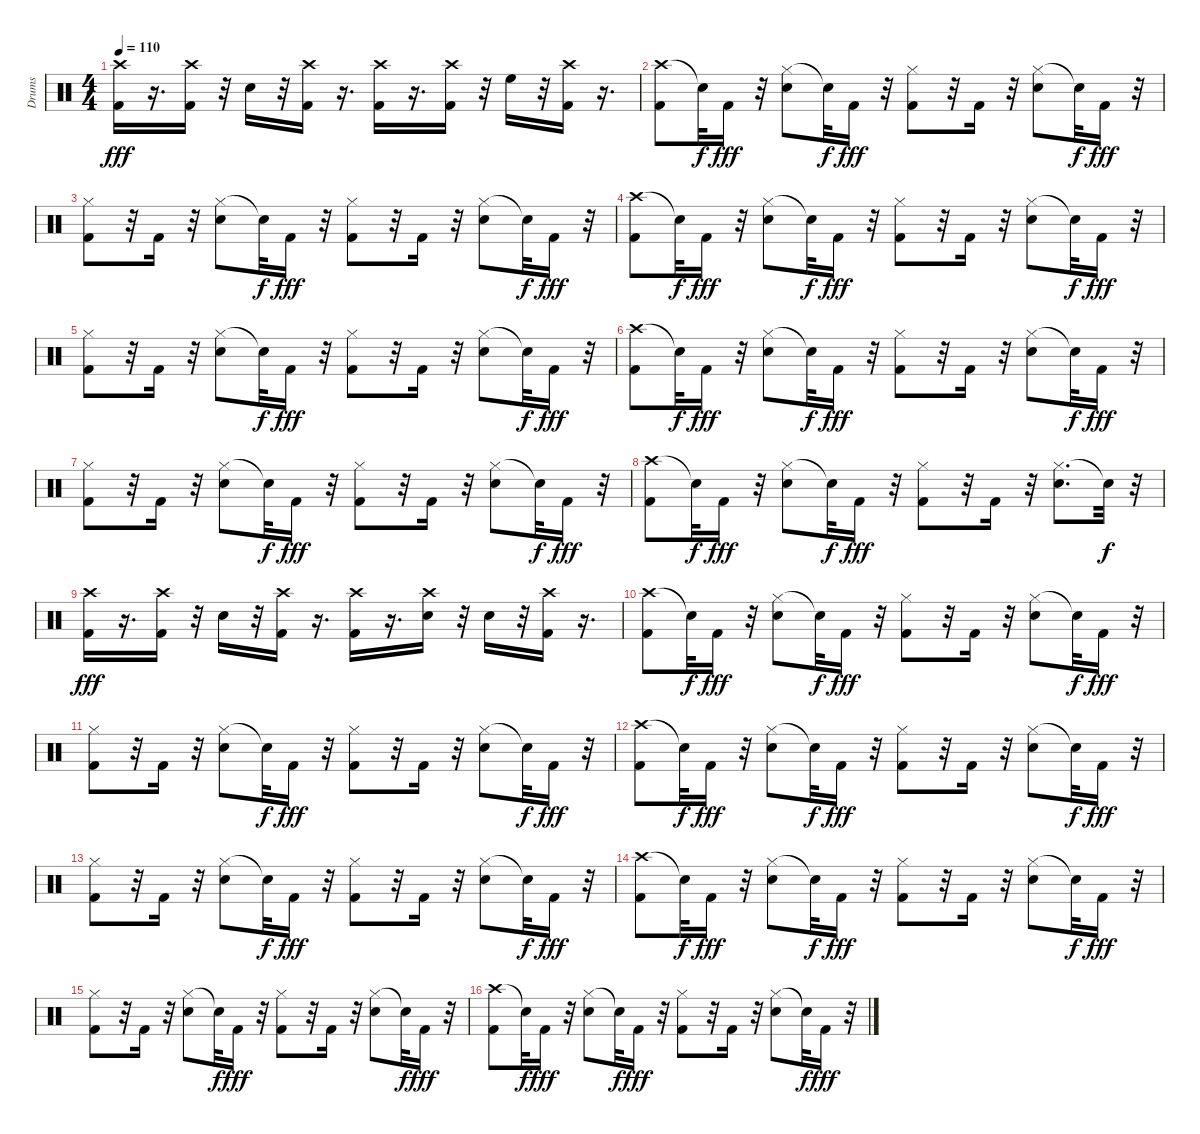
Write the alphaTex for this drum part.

\track ("Drums" "Drums") {instrument percussion}
\staff {score}
\articulation defaults
\ts (4 4)
\tempo 110
\clef neutral
\ks c
("Crash high (hit)" "Kick (hit) 2").16{dy fff} r.16{d} ("Crash high (hit)" "Kick (hit) 2").16 r.32 "Snare (hit) 2".16 r.32 ("Kick (hit) 2" "Crash high (hit)").16 r.16{d} ("Crash high (hit)" "Kick (hit) 2").16 r.16{d} ("Crash high (hit)" "Kick (hit) 2").16 r.32 "High Floor Tom (hit)".16 r.32 ("Crash high (hit)" "Kick (hit) 2").16 r.16{d} |
("Crash high (hit)" "Kick (hit) 2").8 "Snare (hit)"{t}.32{dy f} "Kick (hit) 2".16{dy fff} r.32 ("Hi-Hat (closed)" "Snare (hit) 2").8 "Snare (hit)"{t}.32{dy f} "Kick (hit) 2".16{dy fff} r.32 ("Kick (hit) 2" "Hi-Hat (closed)").8 r.32 "Kick (hit) 2".16 r.32 ("Hi-Hat (closed)" "Snare (hit) 2").8 "Snare (hit)"{t}.32{dy f} "Kick (hit) 2".16{dy fff} r.32 |
("Kick (hit) 2" "Hi-Hat (closed)").8 r.32 "Kick (hit) 2".16 r.32 ("Hi-Hat (closed)" "Snare (hit) 2").8 "Snare (hit)"{t}.32{dy f} "Kick (hit) 2".16{dy fff} r.32 ("Kick (hit) 2" "Hi-Hat (closed)").8 r.32 "Kick (hit) 2".16 r.32 ("Hi-Hat (closed)" "Snare (hit) 2").8 "Snare (hit)"{t}.32{dy f} "Kick (hit) 2".16{dy fff} r.32 |
("Crash high (hit)" "Kick (hit) 2").8 "Snare (hit)"{t}.32{dy f} "Kick (hit) 2".16{dy fff} r.32 ("Hi-Hat (closed)" "Snare (hit) 2").8 "Snare (hit)"{t}.32{dy f} "Kick (hit) 2".16{dy fff} r.32 ("Kick (hit) 2" "Hi-Hat (closed)").8 r.32 "Kick (hit) 2".16 r.32 ("Hi-Hat (closed)" "Snare (hit) 2").8 "Snare (hit)"{t}.32{dy f} "Kick (hit) 2".16{dy fff} r.32 |
("Kick (hit) 2" "Hi-Hat (closed)").8 r.32 "Kick (hit) 2".16 r.32 ("Hi-Hat (closed)" "Snare (hit) 2").8 "Snare (hit)"{t}.32{dy f} "Kick (hit) 2".16{dy fff} r.32 ("Kick (hit) 2" "Hi-Hat (closed)").8 r.32 "Kick (hit) 2".16 r.32 ("Hi-Hat (closed)" "Snare (hit) 2").8 "Snare (hit)"{t}.32{dy f} "Kick (hit) 2".16{dy fff} r.32 |
("Crash high (hit)" "Kick (hit) 2").8 "Snare (hit)"{t}.32{dy f} "Kick (hit) 2".16{dy fff} r.32 ("Hi-Hat (closed)" "Snare (hit) 2").8 "Snare (hit)"{t}.32{dy f} "Kick (hit) 2".16{dy fff} r.32 ("Kick (hit) 2" "Hi-Hat (closed)").8 r.32 "Kick (hit) 2".16 r.32 ("Hi-Hat (closed)" "Snare (hit) 2").8 "Snare (hit)"{t}.32{dy f} "Kick (hit) 2".16{dy fff} r.32 |
("Kick (hit) 2" "Hi-Hat (closed)").8 r.32 "Kick (hit) 2".16 r.32 ("Hi-Hat (closed)" "Snare (hit) 2").8 "Snare (hit)"{t}.32{dy f} "Kick (hit) 2".16{dy fff} r.32 ("Kick (hit) 2" "Hi-Hat (closed)").8 r.32 "Kick (hit) 2".16 r.32 ("Hi-Hat (closed)" "Snare (hit) 2").8 "Snare (hit)"{t}.32{dy f} "Kick (hit) 2".16{dy fff} r.32 |
("Crash high (hit)" "Kick (hit) 2").8 "Snare (hit)"{t}.32{dy f} "Kick (hit) 2".16{dy fff} r.32 ("Hi-Hat (closed)" "Snare (hit) 2").8 "Snare (hit)"{t}.32{dy f} "Kick (hit) 2".16{dy fff} r.32 ("Kick (hit) 2" "Hi-Hat (closed)").8 r.32 "Kick (hit) 2".16 r.32 ("Hi-Hat (closed)" "Snare (hit) 2").8{d} "Snare (hit)"{t}.32{dy f} r.32 |
("Kick (hit) 2" "Crash high (hit)").16{dy fff} r.16{d} ("Kick (hit) 2" "Crash high (hit)").16 r.32 "Snare (hit) 2".16 r.32 ("Kick (hit) 2" "Crash high (hit)").16 r.16{d} ("Kick (hit) 2" "Crash high (hit)").16 r.16{d} ("Snare (hit)" "Crash high (hit)").16 r.32 "Snare (hit) 2".16 r.32 ("Kick (hit) 2" "Crash high (hit)").16 r.16{d} |
("Crash high (hit)" "Kick (hit) 2").8 "Snare (hit)"{t}.32{dy f} "Kick (hit) 2".16{dy fff} r.32 ("Hi-Hat (closed)" "Snare (hit) 2").8 "Snare (hit)"{t}.32{dy f} "Kick (hit) 2".16{dy fff} r.32 ("Kick (hit) 2" "Hi-Hat (closed)").8 r.32 "Kick (hit) 2".16 r.32 ("Hi-Hat (closed)" "Snare (hit) 2").8 "Snare (hit)"{t}.32{dy f} "Kick (hit) 2".16{dy fff} r.32 |
("Kick (hit) 2" "Hi-Hat (closed)").8 r.32 "Kick (hit) 2".16 r.32 ("Hi-Hat (closed)" "Snare (hit) 2").8 "Snare (hit)"{t}.32{dy f} "Kick (hit) 2".16{dy fff} r.32 ("Kick (hit) 2" "Hi-Hat (closed)").8 r.32 "Kick (hit) 2".16 r.32 ("Hi-Hat (closed)" "Snare (hit) 2").8 "Snare (hit)"{t}.32{dy f} "Kick (hit) 2".16{dy fff} r.32 |
("Crash high (hit)" "Kick (hit) 2").8 "Snare (hit)"{t}.32{dy f} "Kick (hit) 2".16{dy fff} r.32 ("Hi-Hat (closed)" "Snare (hit) 2").8 "Snare (hit)"{t}.32{dy f} "Kick (hit) 2".16{dy fff} r.32 ("Kick (hit) 2" "Hi-Hat (closed)").8 r.32 "Kick (hit) 2".16 r.32 ("Hi-Hat (closed)" "Snare (hit) 2").8 "Snare (hit)"{t}.32{dy f} "Kick (hit) 2".16{dy fff} r.32 |
("Kick (hit) 2" "Hi-Hat (closed)").8 r.32 "Kick (hit) 2".16 r.32 ("Hi-Hat (closed)" "Snare (hit) 2").8 "Snare (hit)"{t}.32{dy f} "Kick (hit) 2".16{dy fff} r.32 ("Kick (hit) 2" "Hi-Hat (closed)").8 r.32 "Kick (hit) 2".16 r.32 ("Hi-Hat (closed)" "Snare (hit) 2").8 "Snare (hit)"{t}.32{dy f} "Kick (hit) 2".16{dy fff} r.32 |
("Crash high (hit)" "Kick (hit) 2").8 "Snare (hit)"{t}.32{dy f} "Kick (hit) 2".16{dy fff} r.32 ("Hi-Hat (closed)" "Snare (hit) 2").8 "Snare (hit)"{t}.32{dy f} "Kick (hit) 2".16{dy fff} r.32 ("Kick (hit) 2" "Hi-Hat (closed)").8 r.32 "Kick (hit) 2".16 r.32 ("Hi-Hat (closed)" "Snare (hit) 2").8 "Snare (hit)"{t}.32{dy f} "Kick (hit) 2".16{dy fff} r.32 |
("Kick (hit) 2" "Hi-Hat (closed)").8 r.32 "Kick (hit) 2".16 r.32 ("Hi-Hat (closed)" "Snare (hit) 2").8 "Snare (hit)"{t}.32{dy f} "Kick (hit) 2".16{dy fff} r.32 ("Kick (hit) 2" "Hi-Hat (closed)").8 r.32 "Kick (hit) 2".16 r.32 ("Hi-Hat (closed)" "Snare (hit) 2").8 "Snare (hit)"{t}.32{dy f} "Kick (hit) 2".16{dy fff} r.32 |
("Crash high (hit)" "Kick (hit) 2").8 "Snare (hit)"{t}.32{dy f} "Kick (hit) 2".16{dy fff} r.32 ("Hi-Hat (closed)" "Snare (hit) 2").8 "Snare (hit)"{t}.32{dy f} "Kick (hit) 2".16{dy fff} r.32 ("Kick (hit) 2" "Hi-Hat (closed)").8 r.32 "Kick (hit) 2".16 r.32 ("Hi-Hat (closed)" "Snare (hit) 2").8 "Snare (hit)"{t}.32{dy f} "Kick (hit) 2".16{dy fff} r.32
